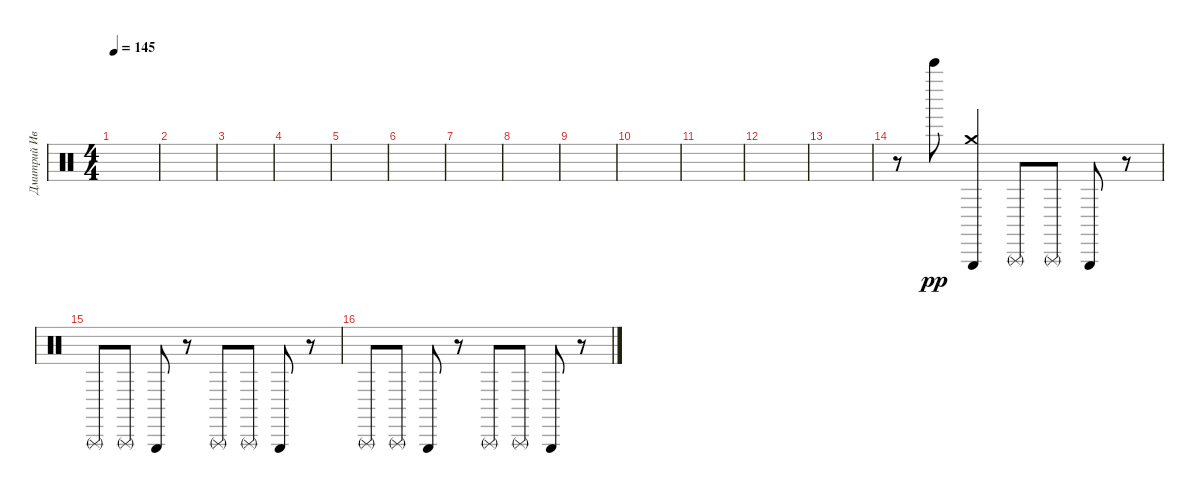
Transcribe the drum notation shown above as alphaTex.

\track ("Дмитрий Иванов" "Дмитрий Ив") {instrument percussion}
\staff {score}
\articulation defaults
\ts (4 4)
\tempo 145
\clef neutral
\ks c
|
|
|
|
|
|
|
|
|
|
|
|
|
r.8 "Bell Tree (hit)".8{dy pp} ("Triangle (hit)" "Crash medium (hit)").4 "Triangle (rnute)".8 "Triangle (rnute)".8 "Triangle (hit)".8 r.8 |
"Triangle (rnute)".8 "Triangle (rnute)".8 "Triangle (hit)".8 r.8 "Triangle (rnute)".8 "Triangle (rnute)".8 "Triangle (hit)".8 r.8 |
"Triangle (rnute)".8 "Triangle (rnute)".8 "Triangle (hit)".8 r.8 "Triangle (rnute)".8 "Triangle (rnute)".8 "Triangle (hit)".8 r.8
